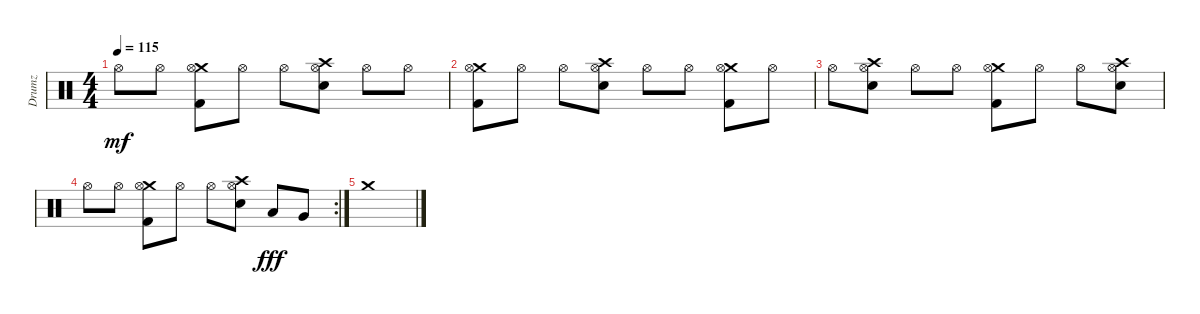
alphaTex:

\track ("Drumz" "Drumz") {instrument percussion}
\staff
\articulation defaults
\ts (4 4)
\tempo 115
\clef neutral
\ks c "Hi-Hat (open)".8{dy mf} "Hi-Hat (open)".8
("Crash medium (hit)" "Hi-Hat (open)" "Kick (hit) 2").8 "Hi-Hat (open)".8 "Hi-Hat (open)".8 ("Crash high (hit)" "Hi-Hat (open)" "Snare (hit) 2").8 "Hi-Hat (open)".8 "Hi-Hat (open)".8 |
("Crash medium (hit)" "Hi-Hat (open)" "Kick (hit) 2").8 "Hi-Hat (open)".8 "Hi-Hat (open)".8 ("Crash high (hit)" "Hi-Hat (open)" "Snare (hit) 2").8 "Hi-Hat (open)".8 "Hi-Hat (open)".8 ("Crash medium (hit)" "Hi-Hat (open)" "Kick (hit) 2").8 "Hi-Hat (open)".8 |
"Hi-Hat (open)".8 ("Crash high (hit)" "Hi-Hat (open)" "Snare (hit) 2").8 "Hi-Hat (open)".8 "Hi-Hat (open)".8 ("Crash medium (hit)" "Hi-Hat (open)" "Kick (hit) 2").8 "Hi-Hat (open)".8 "Hi-Hat (open)".8 ("Crash high (hit)" "Hi-Hat (open)" "Snare (hit) 2").8 |
\rc 2 "Hi-Hat (open)".8 "Hi-Hat (open)".8
("Crash medium (hit)" "Hi-Hat (open)" "Kick (hit) 2").8 "Hi-Hat (open)".8 "Hi-Hat (open)".8 ("Crash high (hit)" "Hi-Hat (open)" "Snare (hit) 2").8 "Low Floor Tom (hit)".8{dy fff} "Very Low Tom (hit)".8 |
"Crash medium (hit)".1
